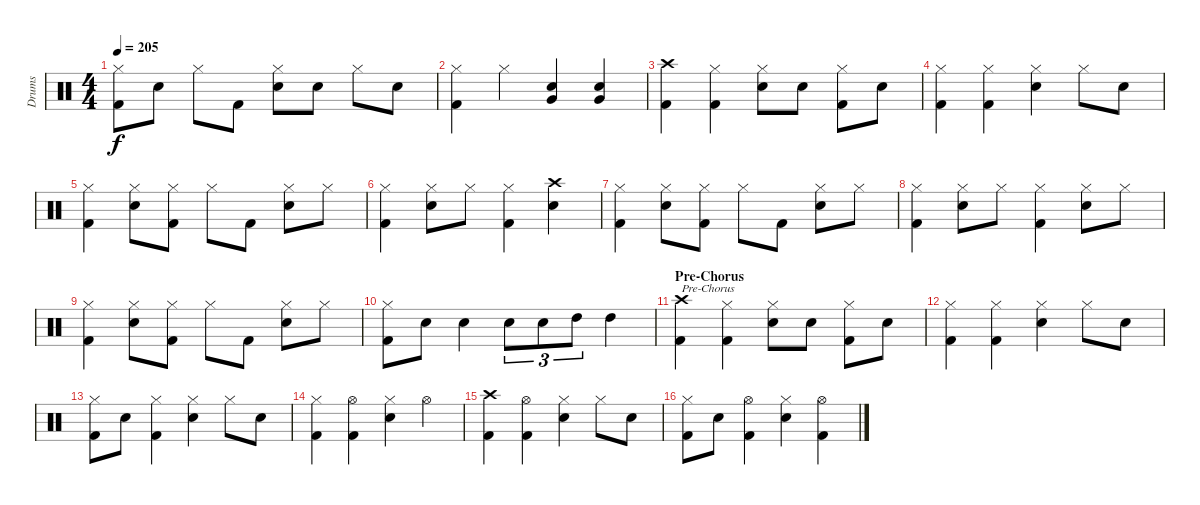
\track ("Drums" "Drums") {instrument percussion}
\staff {score}
\articulation defaults
\ts (4 4)
\tempo 205
\clef neutral
\ks c
("Hi-Hat (closed)" "Kick (hit) 2").8{dy f} "Electric Snare (hit)".8 "Hi-Hat (closed)".8 "Kick (hit) 2".8 ("Hi-Hat (closed)" "Electric Snare (hit)").8 "Electric Snare (hit)".8 "Hi-Hat (closed)".8 "Electric Snare (hit)".8 |
("Hi-Hat (closed)" "Kick (hit) 2").4 "Hi-Hat (closed)".4 ("Electric Snare (hit)" "Very Low Tom (hit)").4 ("Electric Snare (hit)" "Very Low Tom (hit)").4 |
("Crash high (hit)" "Kick (hit) 2").4 ("Hi-Hat (closed)" "Kick (hit) 2").4 ("Hi-Hat (closed)" "Electric Snare (hit)").8 "Electric Snare (hit)".8 ("Hi-Hat (closed)" "Kick (hit) 2").8 "Electric Snare (hit)".8 |
("Hi-Hat (closed)" "Kick (hit) 2").4 ("Hi-Hat (closed)" "Kick (hit) 2").4 ("Hi-Hat (closed)" "Electric Snare (hit)").4 "Hi-Hat (closed)".8 "Electric Snare (hit)".8 |
("Hi-Hat (closed)" "Kick (hit) 2").4 ("Hi-Hat (closed)" "Electric Snare (hit)").8 ("Hi-Hat (closed)" "Kick (hit) 2").8 "Hi-Hat (closed)".8 "Kick (hit) 2".8 ("Hi-Hat (closed)" "Electric Snare (hit)").8 "Hi-Hat (closed)".8 |
("Hi-Hat (closed)" "Kick (hit) 2").4 ("Hi-Hat (closed)" "Electric Snare (hit)").8 "Hi-Hat (closed)".8 ("Hi-Hat (closed)" "Kick (hit) 2").4 ("Crash high (hit)" "Electric Snare (hit)").4 |
("Hi-Hat (closed)" "Kick (hit) 2").4 ("Hi-Hat (closed)" "Electric Snare (hit)").8 ("Hi-Hat (closed)" "Kick (hit) 2").8 "Hi-Hat (closed)".8 "Kick (hit) 2".8 ("Hi-Hat (closed)" "Electric Snare (hit)").8 "Hi-Hat (closed)".8 |
("Hi-Hat (closed)" "Kick (hit) 2").4 ("Hi-Hat (closed)" "Electric Snare (hit)").8 "Hi-Hat (closed)".8 ("Hi-Hat (closed)" "Kick (hit) 2").4 ("Hi-Hat (closed)" "Electric Snare (hit)").8 "Hi-Hat (closed)".8 |
("Hi-Hat (closed)" "Kick (hit) 2").4 ("Hi-Hat (closed)" "Electric Snare (hit)").8 ("Hi-Hat (closed)" "Kick (hit) 2").8 "Hi-Hat (closed)".8 "Kick (hit) 2".8 ("Hi-Hat (closed)" "Electric Snare (hit)").8 "Hi-Hat (closed)".8 |
("Hi-Hat (closed)" "Kick (hit) 2").8 "Electric Snare (hit)".8 "Electric Snare (hit)".4 "Electric Snare (hit)".8{tu (3 2)} "Electric Snare (hit)".8{tu (3 2)} "High Tom (hit)".8{tu (3 2)} "High Tom (hit)".4 |
\section ("" "Pre-Chorus")
("Crash high (hit)" "Kick (hit) 2").4{txt "Pre-Chorus"} ("Hi-Hat (closed)" "Kick (hit) 2").4 ("Hi-Hat (closed)" "Electric Snare (hit)").8 "Electric Snare (hit)".8 ("Hi-Hat (closed)" "Kick (hit) 2").8 "Electric Snare (hit)".8 |
("Hi-Hat (closed)" "Kick (hit) 2").4 ("Hi-Hat (closed)" "Kick (hit) 2").4 ("Hi-Hat (closed)" "Electric Snare (hit)").4 "Hi-Hat (closed)".8 "Electric Snare (hit)".8 |
("Hi-Hat (closed)" "Kick (hit) 2").8 "Electric Snare (hit)".8 ("Hi-Hat (closed)" "Kick (hit) 2").4 ("Hi-Hat (closed)" "Electric Snare (hit)").4 "Hi-Hat (closed)".8 "Electric Snare (hit)".8 |
("Hi-Hat (closed)" "Kick (hit) 2").4 ("Hi-Hat (open)" "Kick (hit) 2").4 ("Hi-Hat (closed)" "Electric Snare (hit)").4 "Hi-Hat (open)".4 |
("Crash high (hit)" "Kick (hit) 2").4 ("Hi-Hat (open)" "Kick (hit) 2").4 ("Hi-Hat (closed)" "Electric Snare (hit)").4 "Hi-Hat (closed)".8 "Electric Snare (hit)".8 |
("Hi-Hat (closed)" "Kick (hit) 2").8 "Electric Snare (hit)".8 ("Hi-Hat (open)" "Kick (hit) 2").4 ("Hi-Hat (closed)" "Electric Snare (hit)").4 ("Hi-Hat (open)" "Kick (hit) 2").4
